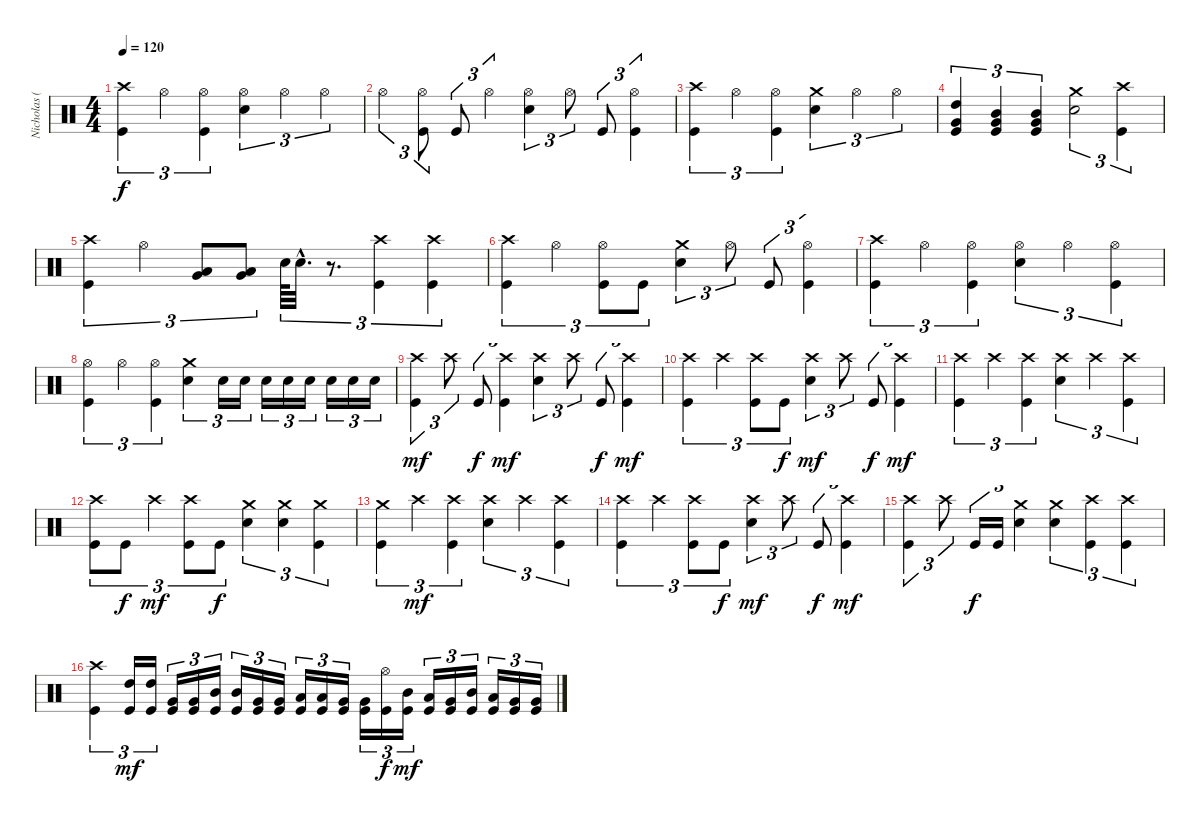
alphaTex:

\track ("Nicholas (Drums)" "Nicholas (") {instrument percussion}
\staff {score}
\articulation defaults
\ts (4 4)
\tempo 120
\clef neutral
\ks c
("Crash high (hit)" "Kick (hit)").4{tu (3 2) dy f} "Hi-Hat (open)".4{tu (3 2)} ("Hi-Hat (open)" "Kick (hit)").4{tu (3 2)} ("Hi-Hat (open)" "Electric Snare (hit)").4{tu (3 2)} "Hi-Hat (open)".4{tu (3 2)} "Hi-Hat (open)".4{tu (3 2)} |
"Hi-Hat (open)".4{tu (3 2)} ("Hi-Hat (open)" "Kick (hit)").8{tu (3 2)} "Kick (hit)".8{tu (3 2)} "Hi-Hat (open)".4{tu (3 2)} ("Hi-Hat (open)" "Electric Snare (hit)").4{tu (3 2)} "Hi-Hat (open)".8{tu (3 2)} "Kick (hit)".8{tu (3 2)} ("Hi-Hat (open)" "Kick (hit)").4{tu (3 2)} |
("Crash high (hit)" "Kick (hit)").4{tu (3 2)} "Hi-Hat (open)".4{tu (3 2)} ("Hi-Hat (open)" "Kick (hit)").4{tu (3 2)} ("Crash medium (hit)" "Electric Snare (hit)").4{tu (3 2)} "Hi-Hat (open)".4{tu (3 2)} "Hi-Hat (open)".4{tu (3 2)} |
("High Tom (hit)" "Very Low Tom (hit)" "Kick (hit)").4{tu (3 2)} ("Mid Tom (hit)" "Very Low Tom (hit)" "Kick (hit)").4{tu (3 2)} ("Mid Tom (hit)" "Very Low Tom (hit)" "Kick (hit)").4{tu (3 2)} ("Crash medium (hit)" "Electric Snare (hit)").2{tu (3 2)} ("Crash high (hit)" "Kick (hit)").4{tu (3 2)} |
("Crash high (hit)" "Kick (hit)").4{tu (3 2)} "Hi-Hat (open)".4{tu (3 2)} ("Low Tom (hit)" "Very Low Tom (hit)").8{tu (3 2)} ("Low Tom (hit)" "Very Low Tom (hit)").8{tu (3 2)} "Electric Snare (hit)".64{tu (3 2)} "Electric Snare (hit)"{hac}.32{d tu (3 2)} r.8{d tu (3 2)} ("Crash high (hit)" "Kick (hit)").4{tu (3 2)} ("Crash high (hit)" "Kick (hit)").4{tu (3 2)} |
("Crash high (hit)" "Kick (hit)").4{tu (3 2)} "Hi-Hat (open)".4{tu (3 2)} ("Hi-Hat (open)" "Kick (hit)").8{tu (3 2)} "Kick (hit)".8{tu (3 2)} ("Crash medium (hit)" "Electric Snare (hit)").4{tu (3 2)} "Hi-Hat (open)".8{tu (3 2)} "Kick (hit)".8{tu (3 2)} ("Hi-Hat (open)" "Kick (hit)").4{tu (3 2)} |
("Crash high (hit)" "Kick (hit)").4{tu (3 2)} "Hi-Hat (open)".4{tu (3 2)} ("Hi-Hat (open)" "Kick (hit)").4{tu (3 2)} ("Hi-Hat (open)" "Electric Snare (hit)").4{tu (3 2)} "Hi-Hat (open)".4{tu (3 2)} ("Hi-Hat (open)" "Kick (hit)").4{tu (3 2)} |
("Hi-Hat (open)" "Kick (hit)").4{tu (3 2)} "Hi-Hat (open)".4{tu (3 2)} ("Hi-Hat (open)" "Kick (hit)").4{tu (3 2)} ("Crash medium (hit)" "Electric Snare (hit)").4{tu (3 2)} "Electric Snare (hit)".16{tu (3 2)} "Electric Snare (hit)".16{tu (3 2)} "Electric Snare (hit)".16{tu (3 2)} "Electric Snare (hit)".16{tu (3 2)} "Electric Snare (hit)".16{tu (3 2)} "Electric Snare (hit)".16{tu (3 2)} "Electric Snare (hit)".16{tu (3 2)} "Electric Snare (hit)".16{tu (3 2)} |
("Crash high (hit)" "Kick (hit)").4{tu (3 2) dy mf} "Crash high (hit)".8{tu (3 2)} "Kick (hit)".8{tu (3 2) dy f} ("Crash high (hit)" "Kick (hit)").4{tu (3 2) dy mf} ("Crash high (hit)" "Electric Snare (hit)").4{tu (3 2)} "Crash high (hit)".8{tu (3 2)} "Kick (hit)".8{tu (3 2) dy f} ("Crash high (hit)" "Kick (hit)").4{tu (3 2) dy mf} |
("Crash high (hit)" "Kick (hit)").4{tu (3 2)} "Crash high (hit)".4{tu (3 2)} ("Crash high (hit)" "Kick (hit)").8{tu (3 2)} "Kick (hit)".8{tu (3 2) dy f} ("Crash high (hit)" "Electric Snare (hit)").4{tu (3 2) dy mf} "Crash high (hit)".8{tu (3 2)} "Kick (hit)".8{tu (3 2) dy f} ("Crash high (hit)" "Kick (hit)").4{tu (3 2) dy mf} |
("Crash high (hit)" "Kick (hit)").4{tu (3 2)} "Crash high (hit)".4{tu (3 2)} ("Crash high (hit)" "Kick (hit)").4{tu (3 2)} ("Crash high (hit)" "Electric Snare (hit)").4{tu (3 2)} "Crash high (hit)".4{tu (3 2)} ("Crash high (hit)" "Kick (hit)").4{tu (3 2)} |
("Crash high (hit)" "Kick (hit)").8{tu (3 2)} "Kick (hit)".8{tu (3 2) dy f} "Crash high (hit)".4{tu (3 2) dy mf} ("Crash high (hit)" "Kick (hit)").8{tu (3 2)} "Kick (hit)".8{tu (3 2) dy f} ("Crash medium (hit)" "Electric Snare (hit)").4{tu (3 2)} ("Crash medium (hit)" "Electric Snare (hit)").4{tu (3 2)} ("Crash medium (hit)" "Kick (hit)").4{tu (3 2)} |
("Crash medium (hit)" "Kick (hit)").4{tu (3 2)} "Crash high (hit)".4{tu (3 2) dy mf} ("Crash high (hit)" "Kick (hit)").4{tu (3 2)} ("Crash high (hit)" "Electric Snare (hit)").4{tu (3 2)} "Crash high (hit)".4{tu (3 2)} ("Crash high (hit)" "Kick (hit)").4{tu (3 2)} |
("Crash high (hit)" "Kick (hit)").4{tu (3 2)} "Crash high (hit)".4{tu (3 2)} ("Crash high (hit)" "Kick (hit)").8{tu (3 2)} "Kick (hit)".8{tu (3 2) dy f} ("Crash high (hit)" "Electric Snare (hit)").4{tu (3 2) dy mf} "Crash high (hit)".8{tu (3 2)} "Kick (hit)".8{tu (3 2) dy f} ("Crash high (hit)" "Kick (hit)").4{tu (3 2) dy mf} |
("Crash high (hit)" "Kick (hit)").4{tu (3 2)} "Crash high (hit)".8{tu (3 2)} "Kick (hit)".16{tu (3 2) dy f} "Kick (hit)".16{tu (3 2)} ("Crash medium (hit)" "Electric Snare (hit)").4{tu (3 2)} ("Crash medium (hit)" "Electric Snare (hit)").4{tu (3 2)} ("Crash high (hit)" "Kick (hit)").4{tu (3 2)} ("Crash high (hit)" "Kick (hit)").4{tu (3 2)} |
("Crash high (hit)" "Kick (hit)").4{tu (3 2)} ("High Tom (hit)" "Kick (hit)").16{tu (3 2) dy mf} ("High Tom (hit)" "Kick (hit)").16{tu (3 2)} ("Very Low Tom (hit)" "Kick (hit)").16{tu (3 2)} ("Very Low Tom (hit)" "Kick (hit)").16{tu (3 2)} ("Mid Tom (hit)" "Kick (hit)").16{tu (3 2)} ("Mid Tom (hit)" "Kick (hit)").16{tu (3 2)} ("Very Low Tom (hit)" "Kick (hit)").16{tu (3 2)} ("Very Low Tom (hit)" "Kick (hit)").16{tu (3 2)} ("Low Tom (hit)" "Kick (hit)").16{tu (3 2)} ("Low Tom (hit)" "Kick (hit)").16{tu (3 2)} ("Very Low Tom (hit)" "Kick (hit)").16{tu (3 2)} ("Very Low Tom (hit)" "Kick (hit)").16{tu (3 2)} ("Hi-Hat (open)" "Kick (hit)").16{tu (3 2) dy f} ("Mid Tom (hit)" "Kick (hit)").16{tu (3 2) dy mf} ("Low Tom (hit)" "Kick (hit)").16{tu (3 2)} ("Very Low Tom (hit)" "Kick (hit)").16{tu (3 2)} ("Mid Tom (hit)" "Kick (hit)").16{tu (3 2)} ("Low Tom (hit)" "Kick (hit)").16{tu (3 2)} ("Very Low Tom (hit)" "Kick (hit)").16{tu (3 2)} ("Very Low Tom (hit)" "Kick (hit)").16{tu (3 2)}
